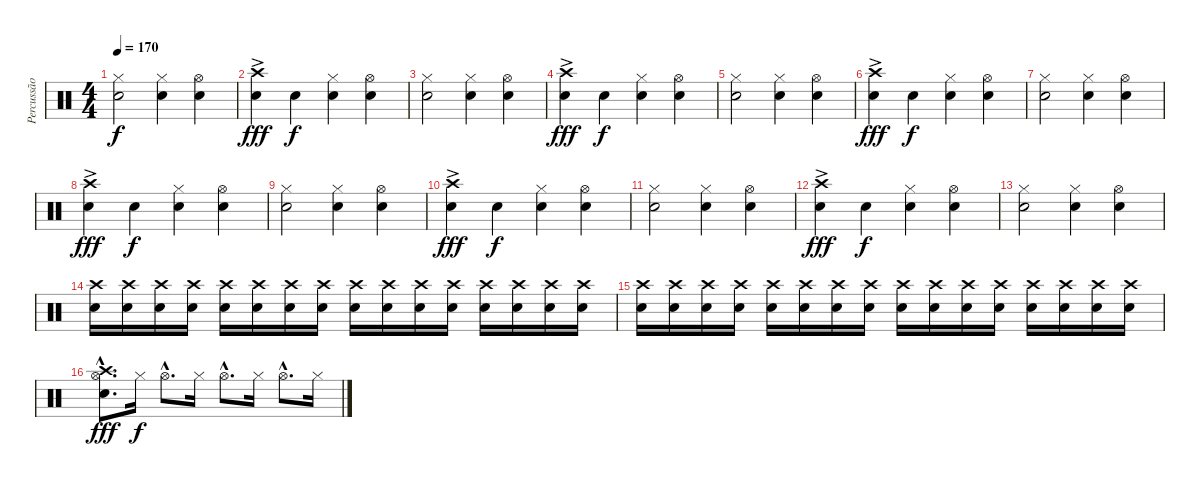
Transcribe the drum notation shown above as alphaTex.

\track ("Percussão" "Percussão") {instrument percussion}
\staff {score}
\articulation defaults
\ts (4 4)
\tempo 170
\clef neutral
\ks c
("Hi-Hat (closed)" "Snare (hit) 2").2{dy f} ("Hi-Hat (closed)" "Snare (hit) 2").4 ("Hi-Hat (open)" "Snare (hit) 2").4 |
("Crash high (hit)"{ac} "Snare (hit) 2").4{dy fff} "Snare (hit) 2".4{dy f} ("Hi-Hat (closed)" "Snare (hit) 2").4 ("Hi-Hat (open)" "Snare (hit) 2").4 |
("Hi-Hat (closed)" "Snare (hit) 2").2 ("Hi-Hat (closed)" "Snare (hit) 2").4 ("Hi-Hat (open)" "Snare (hit) 2").4 |
("Crash high (hit)"{ac} "Snare (hit) 2").4{dy fff} "Snare (hit) 2".4{dy f} ("Hi-Hat (closed)" "Snare (hit) 2").4 ("Hi-Hat (open)" "Snare (hit) 2").4 |
("Hi-Hat (closed)" "Snare (hit) 2").2 ("Hi-Hat (closed)" "Snare (hit) 2").4 ("Hi-Hat (open)" "Snare (hit) 2").4 |
("Crash high (hit)"{ac} "Snare (hit) 2").4{dy fff} "Snare (hit) 2".4{dy f} ("Hi-Hat (closed)" "Snare (hit) 2").4 ("Hi-Hat (open)" "Snare (hit) 2").4 |
("Hi-Hat (closed)" "Snare (hit) 2").2 ("Hi-Hat (closed)" "Snare (hit) 2").4 ("Hi-Hat (open)" "Snare (hit) 2").4 |
("Crash high (hit)"{ac} "Snare (hit) 2").4{dy fff} "Snare (hit) 2".4{dy f} ("Hi-Hat (closed)" "Snare (hit) 2").4 ("Hi-Hat (open)" "Snare (hit) 2").4 |
("Hi-Hat (closed)" "Snare (hit) 2").2 ("Hi-Hat (closed)" "Snare (hit) 2").4 ("Hi-Hat (open)" "Snare (hit) 2").4 |
("Crash high (hit)"{ac} "Snare (hit) 2").4{dy fff} "Snare (hit) 2".4{dy f} ("Hi-Hat (closed)" "Snare (hit) 2").4 ("Hi-Hat (open)" "Snare (hit) 2").4 |
("Hi-Hat (closed)" "Snare (hit) 2").2 ("Hi-Hat (closed)" "Snare (hit) 2").4 ("Hi-Hat (open)" "Snare (hit) 2").4 |
("Crash high (hit)"{ac} "Snare (hit) 2").4{dy fff} "Snare (hit) 2".4{dy f} ("Hi-Hat (closed)" "Snare (hit) 2").4 ("Hi-Hat (open)" "Snare (hit) 2").4 |
("Hi-Hat (closed)" "Snare (hit) 2").2 ("Hi-Hat (closed)" "Snare (hit) 2").4 ("Hi-Hat (open)" "Snare (hit) 2").4 |
("Crash high (hit)" "Snare (hit) 2").16{volume 4} ("Crash high (hit)" "Snare (hit) 2").16 ("Crash high (hit)" "Snare (hit) 2").16{volume 5} ("Crash high (hit)" "Snare (hit) 2").16 ("Crash high (hit)" "Snare (hit) 2").16{volume 6} ("Crash high (hit)" "Snare (hit) 2").16 ("Crash high (hit)" "Snare (hit) 2").16{volume 9} ("Crash high (hit)" "Snare (hit) 2").16 ("Crash high (hit)" "Snare (hit) 2").16{volume 8} ("Crash high (hit)" "Snare (hit) 2").16 ("Crash high (hit)" "Snare (hit) 2").16{volume 9} ("Crash high (hit)" "Snare (hit) 2").16 ("Crash high (hit)" "Snare (hit) 2").16{volume 11} ("Crash high (hit)" "Snare (hit) 2").16 ("Crash high (hit)" "Snare (hit) 2").16{volume 12} ("Crash high (hit)" "Snare (hit) 2").16 |
("Crash high (hit)" "Snare (hit) 2").16{volume 13} ("Crash high (hit)" "Snare (hit) 2").16 ("Crash high (hit)" "Snare (hit) 2").16 ("Crash high (hit)" "Snare (hit) 2").16 ("Crash high (hit)" "Snare (hit) 2").16 ("Crash high (hit)" "Snare (hit) 2").16 ("Crash high (hit)" "Snare (hit) 2").16 ("Crash high (hit)" "Snare (hit) 2").16 ("Crash high (hit)" "Snare (hit) 2").16 ("Crash high (hit)" "Snare (hit) 2").16 ("Crash high (hit)" "Snare (hit) 2").16 ("Crash high (hit)" "Snare (hit) 2").16 ("Crash high (hit)" "Snare (hit) 2").16 ("Crash high (hit)" "Snare (hit) 2").16 ("Crash high (hit)" "Snare (hit) 2").16 ("Crash high (hit)" "Snare (hit) 2").16 |
("Crash high (hit)"{hac} "Snare (hit) 2"{hac} "Hi-Hat (open)"{hac}).8{d dy fff} "Hi-Hat (closed)".16{dy f} "Hi-Hat (open)"{hac}.8{d} "Hi-Hat (closed)".16 "Hi-Hat (open)"{hac}.8{d} "Hi-Hat (closed)".16 "Hi-Hat (open)"{hac}.8{d} "Hi-Hat (closed)".16
